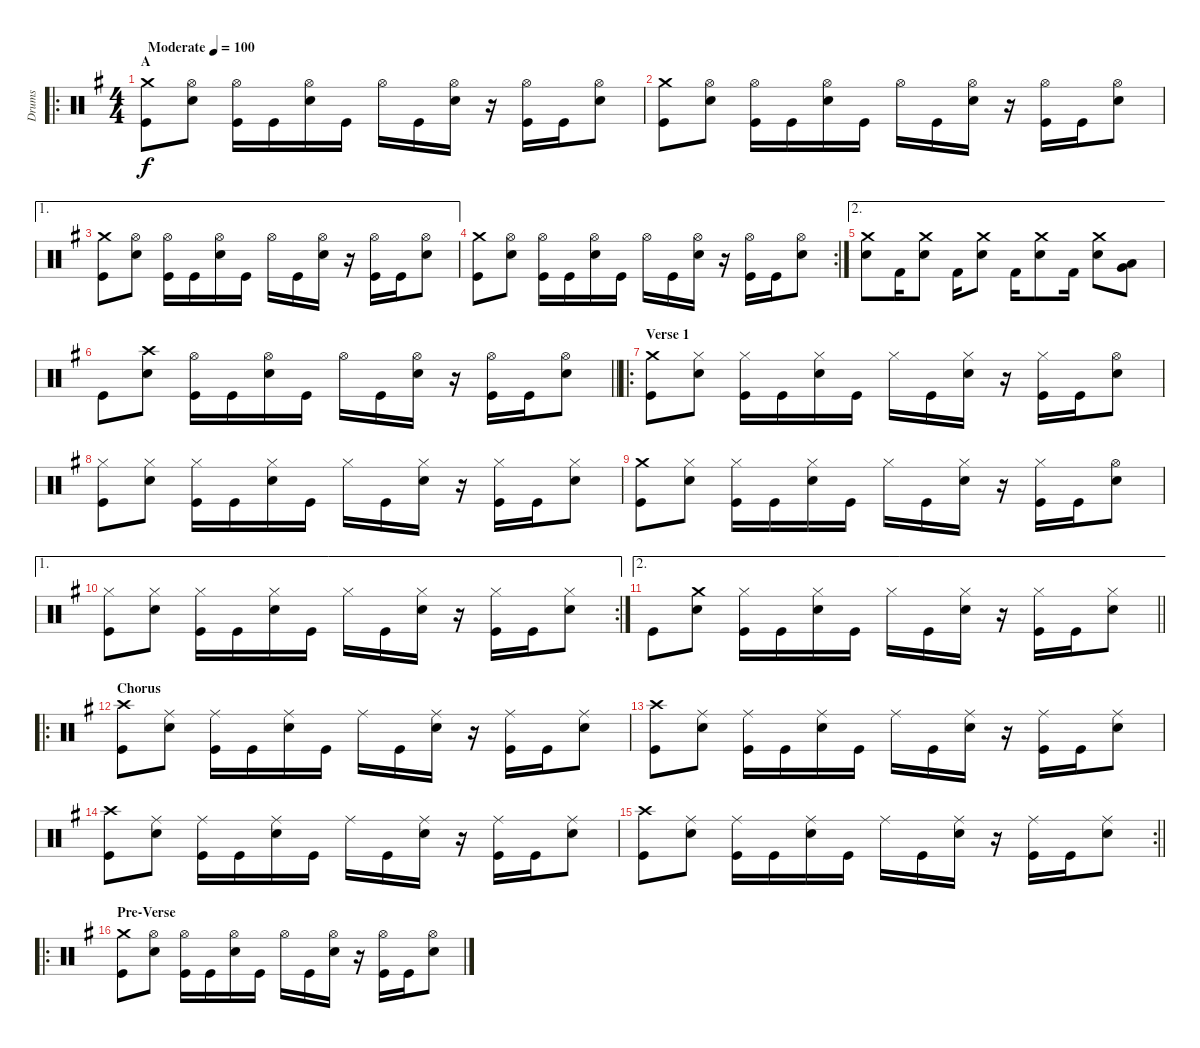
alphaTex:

\track ("Drums" "Drums") {instrument percussion}
\staff {score}
\articulation defaults
\ro
\ts (4 4)
\section ("" "A")
\tempo (100 "Moderate")
\clef neutral
\ks g
("Crash medium (hit)" "Kick (hit)").8{dy f} ("Hi-Hat (open)" "Electric Snare (hit)").8 ("Hi-Hat (open)" "Kick (hit)").16 "Kick (hit)".16 ("Hi-Hat (open)" "Electric Snare (hit)").16 "Kick (hit)".16 "Hi-Hat (open)".16 "Kick (hit)".16 ("Hi-Hat (open)" "Electric Snare (hit)").16 r.16 ("Hi-Hat (open)" "Kick (hit)").16 "Kick (hit)".16 ("Hi-Hat (open)" "Electric Snare (hit)").8 |
("Crash medium (hit)" "Kick (hit)").8 ("Hi-Hat (open)" "Electric Snare (hit)").8 ("Hi-Hat (open)" "Kick (hit)").16 "Kick (hit)".16 ("Hi-Hat (open)" "Electric Snare (hit)").16 "Kick (hit)".16 "Hi-Hat (open)".16 "Kick (hit)".16 ("Hi-Hat (open)" "Electric Snare (hit)").16 r.16 ("Hi-Hat (open)" "Kick (hit)").16 "Kick (hit)".16 ("Hi-Hat (open)" "Electric Snare (hit)").8 |
\ae 1
("Crash medium (hit)" "Kick (hit)").8 ("Hi-Hat (open)" "Electric Snare (hit)").8 ("Hi-Hat (open)" "Kick (hit)").16 "Kick (hit)".16 ("Hi-Hat (open)" "Electric Snare (hit)").16 "Kick (hit)".16 "Hi-Hat (open)".16 "Kick (hit)".16 ("Hi-Hat (open)" "Electric Snare (hit)").16 r.16 ("Hi-Hat (open)" "Kick (hit)").16 "Kick (hit)".16 ("Hi-Hat (open)" "Electric Snare (hit)").8 |
\rc 2
("Crash medium (hit)" "Kick (hit)").8 ("Hi-Hat (open)" "Electric Snare (hit)").8 ("Hi-Hat (open)" "Kick (hit)").16 "Kick (hit)".16 ("Hi-Hat (open)" "Electric Snare (hit)").16 "Kick (hit)".16 "Hi-Hat (open)".16 "Kick (hit)".16 ("Hi-Hat (open)" "Electric Snare (hit)").16 r.16 ("Hi-Hat (open)" "Kick (hit)").16 "Kick (hit)".16 ("Hi-Hat (open)" "Electric Snare (hit)").8 |
\ae 2
("Crash medium (hit)" "Electric Snare (hit)").8 "Kick (hit) 2".16 ("Crash medium (hit)" "Electric Snare (hit)").8 "Kick (hit) 2".16 ("Crash medium (hit)" "Electric Snare (hit)").8 "Kick (hit) 2".16 ("Crash medium (hit)" "Electric Snare (hit)").8 "Kick (hit) 2".16 ("Crash medium (hit)" "Electric Snare (hit)").8 ("Very Low Tom (hit)" "Low Floor Tom (hit)").8 |
\barLineRight lightlight "Kick (hit)".8
("Crash high (hit)" "Electric Snare (hit)").8 ("Hi-Hat (open)" "Kick (hit)").16 "Kick (hit)".16 ("Hi-Hat (open)" "Electric Snare (hit)").16 "Kick (hit)".16 "Hi-Hat (open)".16 "Kick (hit)".16 ("Hi-Hat (open)" "Electric Snare (hit)").16 r.16 ("Hi-Hat (open)" "Kick (hit)").16 "Kick (hit)".16 ("Hi-Hat (open)" "Electric Snare (hit)").8 |
\ro
\section ("" "Verse 1")
("Crash medium (hit)" "Kick (hit)").8 ("Hi-Hat (closed)" "Electric Snare (hit)").8 ("Hi-Hat (closed)" "Kick (hit)").16 "Kick (hit)".16 ("Hi-Hat (closed)" "Electric Snare (hit)").16 "Kick (hit)".16 "Hi-Hat (closed)".16 "Kick (hit)".16 ("Hi-Hat (closed)" "Electric Snare (hit)").16 r.16 ("Hi-Hat (closed)" "Kick (hit)").16 "Kick (hit)".16 ("Hi-Hat (open)" "Electric Snare (hit)").8 |
("Hi-Hat (closed)" "Kick (hit)").8 ("Hi-Hat (closed)" "Electric Snare (hit)").8 ("Hi-Hat (closed)" "Kick (hit)").16 "Kick (hit)".16 ("Hi-Hat (closed)" "Electric Snare (hit)").16 "Kick (hit)".16 "Hi-Hat (closed)".16 "Kick (hit)".16 ("Hi-Hat (closed)" "Electric Snare (hit)").16 r.16 ("Hi-Hat (closed)" "Kick (hit)").16 "Kick (hit)".16 ("Hi-Hat (closed)" "Electric Snare (hit)").8 |
("Crash medium (hit)" "Kick (hit)").8 ("Hi-Hat (closed)" "Electric Snare (hit)").8 ("Hi-Hat (closed)" "Kick (hit)").16 "Kick (hit)".16 ("Hi-Hat (closed)" "Electric Snare (hit)").16 "Kick (hit)".16 "Hi-Hat (closed)".16 "Kick (hit)".16 ("Hi-Hat (closed)" "Electric Snare (hit)").16 r.16 ("Hi-Hat (closed)" "Kick (hit)").16 "Kick (hit)".16 ("Hi-Hat (open)" "Electric Snare (hit)").8 |
\ae 1
\rc 2
("Hi-Hat (closed)" "Kick (hit)").8 ("Hi-Hat (closed)" "Electric Snare (hit)").8 ("Hi-Hat (closed)" "Kick (hit)").16 "Kick (hit)".16 ("Hi-Hat (closed)" "Electric Snare (hit)").16 "Kick (hit)".16 "Hi-Hat (closed)".16 "Kick (hit)".16 ("Hi-Hat (closed)" "Electric Snare (hit)").16 r.16 ("Hi-Hat (closed)" "Kick (hit)").16 "Kick (hit)".16 ("Hi-Hat (closed)" "Electric Snare (hit)").8 |
\ae 2
\barLineRight lightlight "Kick (hit)".8
("Crash medium (hit)" "Electric Snare (hit)").8 ("Hi-Hat (closed)" "Kick (hit)").16 "Kick (hit)".16 ("Hi-Hat (closed)" "Electric Snare (hit)").16 "Kick (hit)".16 "Hi-Hat (closed)".16 "Kick (hit)".16 ("Hi-Hat (closed)" "Electric Snare (hit)").16 r.16 ("Hi-Hat (closed)" "Kick (hit)").16 "Kick (hit)".16 ("Hi-Hat (closed)" "Electric Snare (hit)").8 |
\ro
\section ("" "Chorus")
("Crash high (hit)" "Kick (hit)").8 ("Ride (middle)" "Electric Snare (hit)").8 ("Ride (middle)" "Kick (hit)").16 "Kick (hit)".16 ("Ride (middle)" "Electric Snare (hit)").16 "Kick (hit)".16 "Ride (middle)".16 "Kick (hit)".16 ("Ride (middle)" "Electric Snare (hit)").16 r.16 ("Ride (middle)" "Kick (hit)").16 "Kick (hit)".16 ("Ride (middle)" "Electric Snare (hit)").8 |
("Crash high (hit)" "Kick (hit)").8 ("Ride (middle)" "Electric Snare (hit)").8 ("Ride (middle)" "Kick (hit)").16 "Kick (hit)".16 ("Ride (middle)" "Electric Snare (hit)").16 "Kick (hit)".16 "Ride (middle)".16 "Kick (hit)".16 ("Ride (middle)" "Electric Snare (hit)").16 r.16 ("Ride (middle)" "Kick (hit)").16 "Kick (hit)".16 ("Ride (middle)" "Electric Snare (hit)").8 |
("Crash high (hit)" "Kick (hit)").8 ("Ride (middle)" "Electric Snare (hit)").8 ("Ride (middle)" "Kick (hit)").16 "Kick (hit)".16 ("Ride (middle)" "Electric Snare (hit)").16 "Kick (hit)".16 "Ride (middle)".16 "Kick (hit)".16 ("Ride (middle)" "Electric Snare (hit)").16 r.16 ("Ride (middle)" "Kick (hit)").16 "Kick (hit)".16 ("Ride (middle)" "Electric Snare (hit)").8 |
\rc 2
\barLineRight lightlight
("Crash high (hit)" "Kick (hit)").8 ("Ride (middle)" "Electric Snare (hit)").8 ("Ride (middle)" "Kick (hit)").16 "Kick (hit)".16 ("Ride (middle)" "Electric Snare (hit)").16 "Kick (hit)".16 "Ride (middle)".16 "Kick (hit)".16 ("Ride (middle)" "Electric Snare (hit)").16 r.16 ("Ride (middle)" "Kick (hit)").16 "Kick (hit)".16 ("Ride (middle)" "Electric Snare (hit)").8 |
\ro
\section ("" "Pre-Verse")
("Crash medium (hit)" "Kick (hit)").8 ("Hi-Hat (open)" "Electric Snare (hit)").8 ("Hi-Hat (open)" "Kick (hit)").16 "Kick (hit)".16 ("Hi-Hat (open)" "Electric Snare (hit)").16 "Kick (hit)".16 "Hi-Hat (open)".16 "Kick (hit)".16 ("Hi-Hat (open)" "Electric Snare (hit)").16 r.16 ("Hi-Hat (open)" "Kick (hit)").16 "Kick (hit)".16 ("Hi-Hat (open)" "Electric Snare (hit)").8
